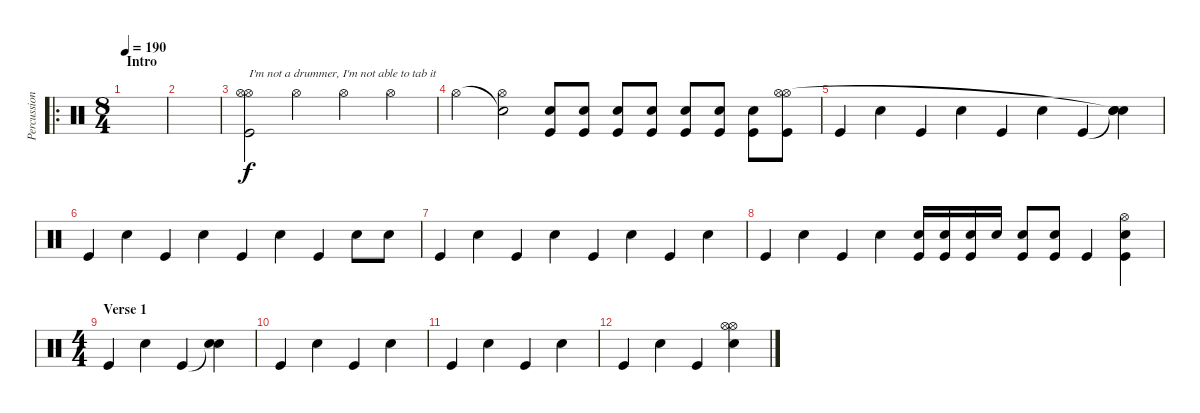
\track ("Percussion" "Percussion") {instrument percussion}
\staff {score}
\articulation defaults
\ro
\ts (8 4)
\section ("" "Intro")
\tempo 190
\clef neutral
\ks c
|
|
("Hi-Hat (open)" "Hi-Hat (open)" "Kick (hit)").2{txt "I'm not a drummer, I'm not able to tab it"} "Hi-Hat (open)".2 "Hi-Hat (open)".2 "Hi-Hat (open)".2 |
"Hi-Hat (open)".2 ("Snare (hit)"{t} "Hi-Hat (open)").2 ("Kick (hit)" "Snare (hit) 2").8 ("Kick (hit)" "Snare (hit) 2").8 ("Kick (hit)" "Snare (hit) 2").8 ("Kick (hit)" "Snare (hit) 2").8 ("Kick (hit)" "Snare (hit) 2").8 ("Kick (hit)" "Snare (hit) 2").8 ("Kick (hit)" "Snare (hit) 2").8 ("Hi-Hat (open)" "Hi-Hat (open)" "Kick (hit)").8 |
"Kick (hit)".4 "Snare (hit) 2".4 "Kick (hit)".4 "Snare (hit) 2".4 "Kick (hit)".4 "Snare (hit) 2".4 "Kick (hit)".4 ("Snare (hit)"{t} "Snare (hit)"{t} "Snare (hit) 2").4 |
"Kick (hit)".4 "Snare (hit) 2".4 "Kick (hit)".4 "Snare (hit) 2".4 "Kick (hit)".4 "Snare (hit) 2".4 "Kick (hit)".4 "Snare (hit) 2".8 "Snare (hit) 2".8 |
"Kick (hit)".4 "Snare (hit) 2".4 "Kick (hit)".4 "Snare (hit) 2".4 "Kick (hit)".4 "Snare (hit) 2".4 "Kick (hit)".4 "Snare (hit) 2".4 |
"Kick (hit)".4 "Snare (hit) 2".4 "Kick (hit)".4 "Snare (hit) 2".4 ("Kick (hit)" "Snare (hit) 2").16 ("Kick (hit)" "Snare (hit) 2").16 ("Kick (hit)" "Snare (hit) 2").16 "Snare (hit) 2".16 ("Kick (hit)" "Snare (hit) 2").8 ("Kick (hit)" "Snare (hit) 2").8 "Kick (hit)".4 ("Hi-Hat (open)" "Kick (hit)" "Snare (hit) 2").4 |
\ts (4 4)
\section ("" "Verse 1")
"Kick (hit)".4 "Snare (hit) 2".4 "Kick (hit)".4 ("Snare (hit)"{t} "Snare (hit) 2").4 |
"Kick (hit)".4 "Snare (hit) 2".4 "Kick (hit)".4 "Snare (hit) 2".4 |
"Kick (hit)".4 "Snare (hit) 2".4 "Kick (hit)".4 "Snare (hit) 2".4 |
"Kick (hit)".4 "Snare (hit) 2".4 "Kick (hit)".4 ("Hi-Hat (open)" "Hi-Hat (open)" "Snare (hit) 2").4
